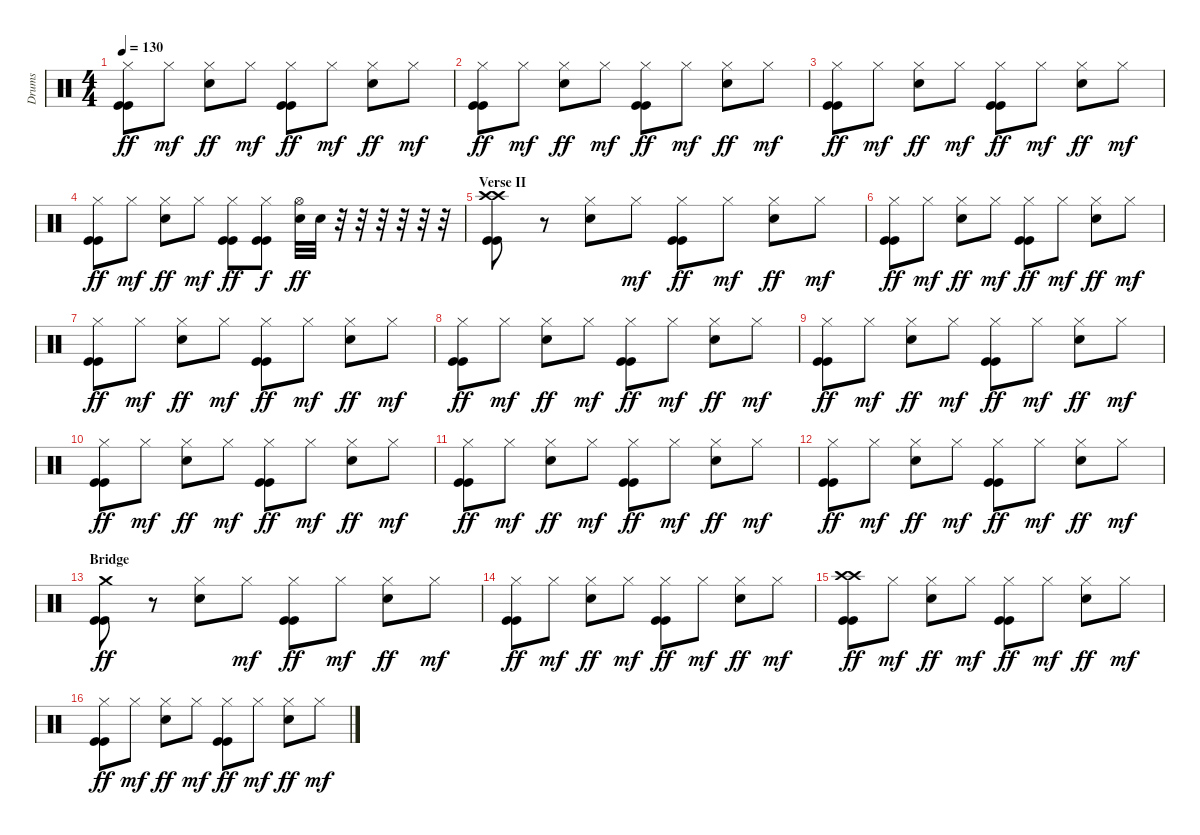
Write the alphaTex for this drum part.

\track ("Drums" "Drums") {instrument percussion}
\staff {score}
\articulation defaults
\ts (4 4)
\tempo 130
\clef neutral
\ks c
("Hi-Hat (closed)" "Kick (hit)" "Kick (hit)").8{dy ff} "Hi-Hat (closed)".8{dy mf} ("Hi-Hat (closed)" "Snare (hit) 2").8{dy ff} "Hi-Hat (closed)".8{dy mf} ("Hi-Hat (closed)" "Kick (hit)" "Kick (hit)").8{dy ff} "Hi-Hat (closed)".8{dy mf} ("Hi-Hat (closed)" "Snare (hit) 2").8{dy ff} "Hi-Hat (closed)".8{dy mf} |
("Hi-Hat (closed)" "Kick (hit)" "Kick (hit)").8{dy ff} "Hi-Hat (closed)".8{dy mf} ("Hi-Hat (closed)" "Snare (hit) 2").8{dy ff} "Hi-Hat (closed)".8{dy mf} ("Hi-Hat (closed)" "Kick (hit)" "Kick (hit)").8{dy ff} "Hi-Hat (closed)".8{dy mf} ("Hi-Hat (closed)" "Snare (hit) 2").8{dy ff} "Hi-Hat (closed)".8{dy mf} |
("Hi-Hat (closed)" "Kick (hit)" "Kick (hit)").8{dy ff} "Hi-Hat (closed)".8{dy mf} ("Hi-Hat (closed)" "Snare (hit) 2").8{dy ff} "Hi-Hat (closed)".8{dy mf} ("Hi-Hat (closed)" "Kick (hit)" "Kick (hit)").8{dy ff} "Hi-Hat (closed)".8{dy mf} ("Hi-Hat (closed)" "Snare (hit) 2").8{dy ff} "Hi-Hat (closed)".8{dy mf} |
("Hi-Hat (closed)" "Kick (hit)" "Kick (hit)").8{dy ff} "Hi-Hat (closed)".8{dy mf} ("Hi-Hat (closed)" "Snare (hit) 2").8{dy ff} "Hi-Hat (closed)".8{dy mf} ("Hi-Hat (closed)" "Kick (hit)" "Kick (hit)").8{dy ff} ("Hi-Hat (closed)" "Kick (hit)" "Kick (hit)").8{dy f} ("Hi-Hat (open)" "Snare (hit) 2").32{dy ff} "Snare (hit) 2".32 r.32 r.32 r.32 r.32 r.32 r.32 |
\section ("" "Verse II")
("Crash high (hit)" "Crash high (hit)" "Kick (hit)" "Kick (hit)").8 r.8 ("Hi-Hat (closed)" "Snare (hit) 2").8 "Hi-Hat (closed)".8{dy mf} ("Hi-Hat (closed)" "Kick (hit)" "Kick (hit)").8{dy ff} "Hi-Hat (closed)".8{dy mf} ("Hi-Hat (closed)" "Snare (hit) 2").8{dy ff} "Hi-Hat (closed)".8{dy mf} |
("Hi-Hat (closed)" "Kick (hit)" "Kick (hit)").8{dy ff} "Hi-Hat (closed)".8{dy mf} ("Hi-Hat (closed)" "Snare (hit) 2").8{dy ff} "Hi-Hat (closed)".8{dy mf} ("Hi-Hat (closed)" "Kick (hit)" "Kick (hit)").8{dy ff} "Hi-Hat (closed)".8{dy mf} ("Hi-Hat (closed)" "Snare (hit) 2").8{dy ff} "Hi-Hat (closed)".8{dy mf} |
("Hi-Hat (closed)" "Kick (hit)" "Kick (hit)").8{dy ff} "Hi-Hat (closed)".8{dy mf} ("Hi-Hat (closed)" "Snare (hit) 2").8{dy ff} "Hi-Hat (closed)".8{dy mf} ("Hi-Hat (closed)" "Kick (hit)" "Kick (hit)").8{dy ff} "Hi-Hat (closed)".8{dy mf} ("Hi-Hat (closed)" "Snare (hit) 2").8{dy ff} "Hi-Hat (closed)".8{dy mf} |
("Hi-Hat (closed)" "Kick (hit)" "Kick (hit)").8{dy ff} "Hi-Hat (closed)".8{dy mf} ("Hi-Hat (closed)" "Snare (hit) 2").8{dy ff} "Hi-Hat (closed)".8{dy mf} ("Hi-Hat (closed)" "Kick (hit)" "Kick (hit)").8{dy ff} "Hi-Hat (closed)".8{dy mf} ("Hi-Hat (closed)" "Snare (hit) 2").8{dy ff} "Hi-Hat (closed)".8{dy mf} |
("Hi-Hat (closed)" "Kick (hit)" "Kick (hit)").8{dy ff} "Hi-Hat (closed)".8{dy mf} ("Hi-Hat (closed)" "Snare (hit) 2").8{dy ff} "Hi-Hat (closed)".8{dy mf} ("Hi-Hat (closed)" "Kick (hit)" "Kick (hit)").8{dy ff} "Hi-Hat (closed)".8{dy mf} ("Hi-Hat (closed)" "Snare (hit) 2").8{dy ff} "Hi-Hat (closed)".8{dy mf} |
("Hi-Hat (closed)" "Kick (hit)" "Kick (hit)").8{dy ff} "Hi-Hat (closed)".8{dy mf} ("Hi-Hat (closed)" "Snare (hit) 2").8{dy ff} "Hi-Hat (closed)".8{dy mf} ("Hi-Hat (closed)" "Kick (hit)" "Kick (hit)").8{dy ff} "Hi-Hat (closed)".8{dy mf} ("Hi-Hat (closed)" "Snare (hit) 2").8{dy ff} "Hi-Hat (closed)".8{dy mf} |
("Hi-Hat (closed)" "Kick (hit)" "Kick (hit)").8{dy ff} "Hi-Hat (closed)".8{dy mf} ("Hi-Hat (closed)" "Snare (hit) 2").8{dy ff} "Hi-Hat (closed)".8{dy mf} ("Hi-Hat (closed)" "Kick (hit)" "Kick (hit)").8{dy ff} "Hi-Hat (closed)".8{dy mf} ("Hi-Hat (closed)" "Snare (hit) 2").8{dy ff} "Hi-Hat (closed)".8{dy mf} |
("Hi-Hat (closed)" "Kick (hit)" "Kick (hit)").8{dy ff} "Hi-Hat (closed)".8{dy mf} ("Hi-Hat (closed)" "Snare (hit) 2").8{dy ff} "Hi-Hat (closed)".8{dy mf} ("Hi-Hat (closed)" "Kick (hit)" "Kick (hit)").8{dy ff} "Hi-Hat (closed)".8{dy mf} ("Hi-Hat (closed)" "Snare (hit) 2").8{dy ff} "Hi-Hat (closed)".8{dy mf} |
\section ("" "Bridge")
("Crash medium (hit)" "Kick (hit)" "Kick (hit)").8{dy ff} r.8 ("Hi-Hat (closed)" "Snare (hit) 2").8 "Hi-Hat (closed)".8{dy mf} ("Hi-Hat (closed)" "Kick (hit)" "Kick (hit)").8{dy ff} "Hi-Hat (closed)".8{dy mf} ("Hi-Hat (closed)" "Snare (hit) 2").8{dy ff} "Hi-Hat (closed)".8{dy mf} |
("Hi-Hat (closed)" "Kick (hit)" "Kick (hit)").8{dy ff} "Hi-Hat (closed)".8{dy mf} ("Hi-Hat (closed)" "Snare (hit) 2").8{dy ff} "Hi-Hat (closed)".8{dy mf} ("Hi-Hat (closed)" "Kick (hit)" "Kick (hit)").8{dy ff} "Hi-Hat (closed)".8{dy mf} ("Hi-Hat (closed)" "Snare (hit) 2").8{dy ff} "Hi-Hat (closed)".8{dy mf} |
("Crash high (hit)" "Crash high (hit)" "Kick (hit)" "Kick (hit)").8{dy ff} "Hi-Hat (closed)".8{dy mf} ("Hi-Hat (closed)" "Snare (hit) 2").8{dy ff} "Hi-Hat (closed)".8{dy mf} ("Hi-Hat (closed)" "Kick (hit)" "Kick (hit)").8{dy ff} "Hi-Hat (closed)".8{dy mf} ("Hi-Hat (closed)" "Snare (hit) 2").8{dy ff} "Hi-Hat (closed)".8{dy mf} |
("Hi-Hat (closed)" "Kick (hit)" "Kick (hit)").8{dy ff} "Hi-Hat (closed)".8{dy mf} ("Hi-Hat (closed)" "Snare (hit) 2").8{dy ff} "Hi-Hat (closed)".8{dy mf} ("Hi-Hat (closed)" "Kick (hit)" "Kick (hit)").8{dy ff} "Hi-Hat (closed)".8{dy mf} ("Hi-Hat (closed)" "Snare (hit) 2").8{dy ff} "Hi-Hat (closed)".8{dy mf}
